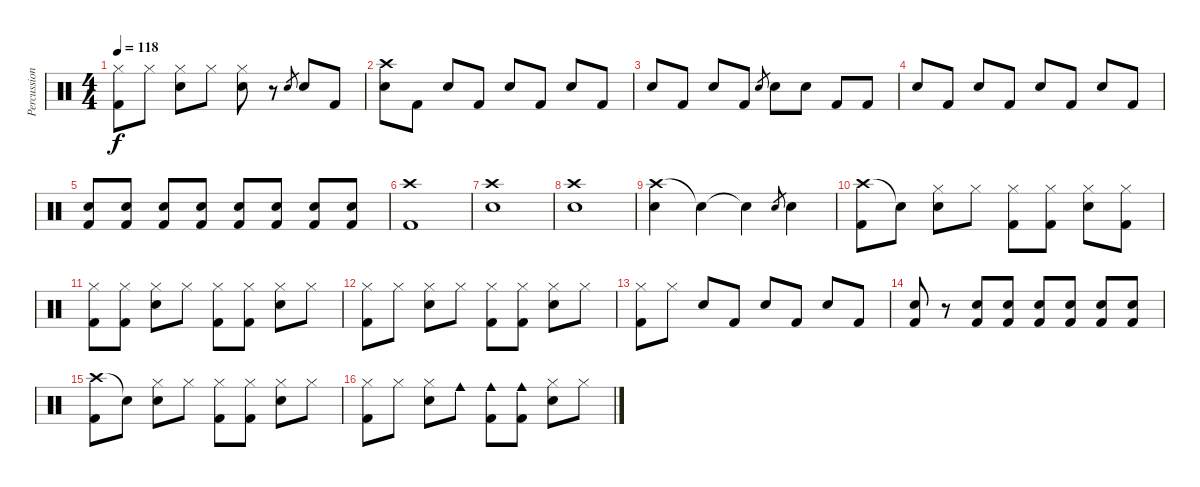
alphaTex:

\track ("Percussion" "Percussion") {instrument percussion}
\staff {score}
\articulation defaults
\ts (4 4)
\tempo 118
\clef neutral
\ks c
("Hi-Hat (closed)" "Kick (hit) 2").8{dy f} "Hi-Hat (closed)".8 ("Hi-Hat (closed)" "Snare (hit) 2").8 "Hi-Hat (closed)".8 ("Hi-Hat (closed)" "Snare (hit) 2").8 r.8 "Snare (hit) 2".8{gr} "Snare (hit) 2".8 "Kick (hit) 2".8 |
("Crash high (hit)" "Snare (hit) 2").8 "Kick (hit) 2".8 "Snare (hit) 2".8 "Kick (hit) 2".8 "Snare (hit) 2".8 "Kick (hit) 2".8 "Snare (hit) 2".8 "Kick (hit) 2".8 |
"Snare (hit) 2".8 "Kick (hit) 2".8 "Snare (hit) 2".8 "Kick (hit) 2".8 "Snare (hit) 2".8{gr} "Snare (hit) 2".8 "Snare (hit) 2".8 "Kick (hit) 2".8 "Kick (hit) 2".8 |
"Snare (hit) 2".8 "Kick (hit) 2".8 "Snare (hit) 2".8 "Kick (hit) 2".8 "Snare (hit) 2".8 "Kick (hit) 2".8 "Snare (hit) 2".8 "Kick (hit) 2".8 |
("Snare (hit) 2" "Kick (hit) 2").8 ("Snare (hit) 2" "Kick (hit) 2").8 ("Snare (hit) 2" "Kick (hit) 2").8 ("Snare (hit) 2" "Kick (hit) 2").8 ("Snare (hit) 2" "Kick (hit) 2").8 ("Snare (hit) 2" "Kick (hit) 2").8 ("Snare (hit) 2" "Kick (hit) 2").8 ("Snare (hit) 2" "Kick (hit) 2").8 |
("Crash high (hit)" "Kick (hit) 2").1 |
("Crash high (hit)" "Snare (hit) 2").1 |
("Crash high (hit)" "Snare (hit) 2").1 |
("Crash high (hit)" "Snare (hit) 2").4 "Snare (hit)"{t}.4 "Snare (hit)"{t}.4 "Snare (hit) 2".8{gr} "Snare (hit) 2".4 |
("Crash high (hit)" "Kick (hit) 2").8 "Snare (hit)"{t}.8 ("Hi-Hat (closed)" "Snare (hit) 2").8 "Hi-Hat (closed)".8 ("Hi-Hat (closed)" "Kick (hit) 2").8 ("Hi-Hat (closed)" "Kick (hit) 2").8 ("Hi-Hat (closed)" "Snare (hit) 2").8 ("Hi-Hat (closed)" "Kick (hit) 2").8 |
("Hi-Hat (closed)" "Kick (hit) 2").8 ("Hi-Hat (closed)" "Kick (hit) 2").8 ("Hi-Hat (closed)" "Snare (hit) 2").8 "Hi-Hat (closed)".8 ("Hi-Hat (closed)" "Kick (hit) 2").8 ("Hi-Hat (closed)" "Kick (hit) 2").8 ("Hi-Hat (closed)" "Snare (hit) 2").8 "Hi-Hat (closed)".8 |
("Hi-Hat (closed)" "Kick (hit) 2").8 "Hi-Hat (closed)".8 ("Hi-Hat (closed)" "Snare (hit) 2").8 "Hi-Hat (closed)".8 ("Hi-Hat (closed)" "Kick (hit) 2").8 ("Hi-Hat (closed)" "Kick (hit) 2").8 ("Hi-Hat (closed)" "Snare (hit) 2").8 "Hi-Hat (closed)".8 |
("Hi-Hat (closed)" "Kick (hit) 2").8 "Hi-Hat (closed)".8 "Snare (hit) 2".8 "Kick (hit) 2".8 "Snare (hit) 2".8 "Kick (hit) 2".8 "Snare (hit) 2".8 "Kick (hit) 2".8 |
("Snare (hit) 2" "Kick (hit) 2").8 r.8 ("Snare (hit) 2" "Kick (hit) 2").8 ("Snare (hit) 2" "Kick (hit) 2").8 ("Snare (hit) 2" "Kick (hit) 2").8 ("Snare (hit) 2" "Kick (hit) 2").8 ("Snare (hit) 2" "Kick (hit) 2").8 ("Snare (hit) 2" "Kick (hit) 2").8 |
("Crash high (hit)" "Kick (hit) 2").8 "Snare (hit)"{t}.8 ("Hi-Hat (closed)" "Snare (hit) 2").8 "Hi-Hat (closed)".8 ("Hi-Hat (closed)" "Kick (hit) 2").8 ("Hi-Hat (closed)" "Kick (hit) 2").8 ("Hi-Hat (closed)" "Snare (hit) 2").8 "Hi-Hat (closed)".8 |
("Hi-Hat (closed)" "Kick (hit) 2").8 "Hi-Hat (closed)".8 ("Hi-Hat (closed)" "Snare (hit) 2").8 "Cowbell medium (hit)".8 ("Cowbell medium (hit)" "Kick (hit) 2").8 ("Cowbell medium (hit)" "Kick (hit) 2").8 ("Hi-Hat (closed)" "Snare (hit) 2").8 "Hi-Hat (closed)".8
